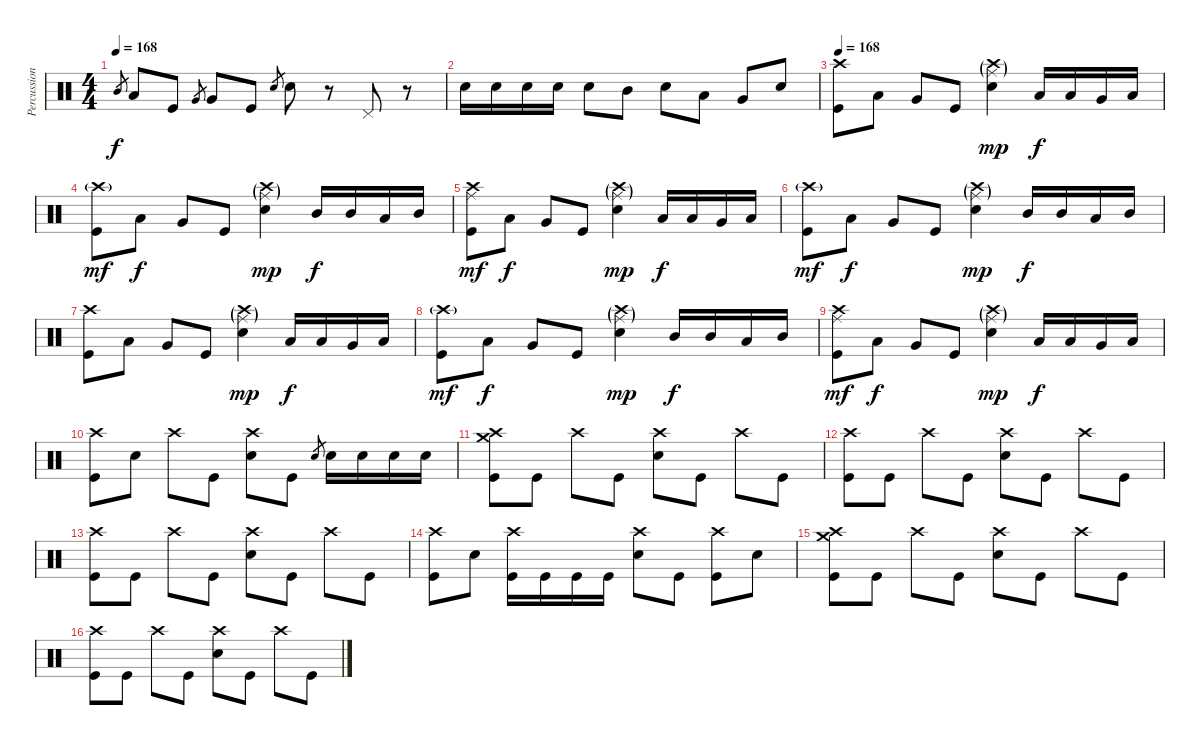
\track ("Percussion" "Percussion") {instrument percussion}
\staff {score}
\articulation defaults
\ts (4 4)
\tempo 168
\clef neutral
\ks c "Mid Tom (hit)".8{gr dy f} "Low Tom (hit)".8 "Kick (hit)".8 "Very Low Tom (hit)".8{gr} "Very Low Tom (hit)".8 "Kick (hit)".8 "Snare (hit) 2".8{gr} "Snare (hit) 2".8
r.8 "Pedal Hi-Hat (hit)".8 r.8 |
"Snare (hit) 2".16 "Snare (hit) 2".16 "Snare (hit) 2".16 "Snare (hit) 2".16 "Snare (hit) 2".8 "Mid Tom (hit)".8 "Snare (hit) 2".8 "Low Tom (hit)".8 "Very Low Tom (hit)".8 "Snare (hit) 2".8 |
\tempo 168
("Crash high (hit)" "Kick (hit)").8 "Low Tom (hit)".8 "Very Low Tom (hit)".8 "Kick (hit)".8 ("Crash high (hit)"{g} "Ride (middle)"{g} "Snare (hit) 2").4{dy mp} "Low Floor Tom (hit)".16{dy f} "Low Floor Tom (hit)".16 "Very Low Tom (hit)".16 "Low Floor Tom (hit)".16 |
("Crash high (hit)"{g} "Kick (hit)").8{dy mf} "Low Tom (hit)".8{dy f} "Very Low Tom (hit)".8 "Kick (hit)".8 ("Crash high (hit)"{g} "Ride (middle)"{g} "Snare (hit) 2").4{dy mp} "Mid Tom (hit)".16{dy f} "Mid Tom (hit)".16 "Low Tom (hit)".16 "Mid Tom (hit)".16 |
("Crash high (hit)" "Ride (middle)" "Kick (hit)").8{dy mf} "Low Tom (hit)".8{dy f} "Very Low Tom (hit)".8 "Kick (hit)".8 ("Crash high (hit)"{g} "Ride (middle)"{g} "Snare (hit) 2").4{dy mp} "Low Floor Tom (hit)".16{dy f} "Low Floor Tom (hit)".16 "Very Low Tom (hit)".16 "Low Floor Tom (hit)".16 |
("Crash high (hit)"{g} "Kick (hit)").8{dy mf} "Low Tom (hit)".8{dy f} "Very Low Tom (hit)".8 "Kick (hit)".8 ("Crash high (hit)"{g} "Ride (middle)"{g} "Snare (hit) 2").4{dy mp} "Mid Tom (hit)".16{dy f} "Mid Tom (hit)".16 "Low Tom (hit)".16 "Mid Tom (hit)".16 |
("Crash high (hit)" "Kick (hit)").8 "Low Tom (hit)".8 "Very Low Tom (hit)".8 "Kick (hit)".8 ("Crash high (hit)"{g} "Ride (middle)"{g} "Snare (hit) 2").4{dy mp} "Low Floor Tom (hit)".16{dy f} "Low Floor Tom (hit)".16 "Very Low Tom (hit)".16 "Low Floor Tom (hit)".16 |
("Crash high (hit)"{g} "Kick (hit)").8{dy mf} "Low Tom (hit)".8{dy f} "Very Low Tom (hit)".8 "Kick (hit)".8 ("Crash high (hit)"{g} "Ride (middle)"{g} "Snare (hit) 2").4{dy mp} "Mid Tom (hit)".16{dy f} "Mid Tom (hit)".16 "Low Tom (hit)".16 "Mid Tom (hit)".16 |
("Crash high (hit)" "Ride (middle)" "Kick (hit)").8{dy mf} "Low Tom (hit)".8{dy f} "Very Low Tom (hit)".8 "Kick (hit)".8 ("Crash high (hit)"{g} "Ride (middle)"{g} "Snare (hit) 2").4{dy mp} "Low Floor Tom (hit)".16{dy f} "Low Floor Tom (hit)".16 "Very Low Tom (hit)".16 "Low Floor Tom (hit)".16 |
("Crash high (hit)" "Kick (hit)").8 "Snare (hit) 2".8 "Crash high (hit)".8 "Kick (hit)".8 ("Crash high (hit)" "Snare (hit) 2").8 "Kick (hit)".8 "Snare (hit) 2".8{gr} "Snare (hit) 2".16 "Snare (hit) 2".16 "Snare (hit) 2".16 "Snare (hit) 2".16 |
("Crash high (hit)" "Crash medium (hit)" "Kick (hit)").8{volume 16} "Kick (hit)".8 "Crash high (hit)".8 "Kick (hit)".8 ("Crash high (hit)" "Snare (hit) 2").8 "Kick (hit)".8 "Crash high (hit)".8 "Kick (hit)".8 |
("Crash high (hit)" "Kick (hit)").8 "Kick (hit)".8 "Crash high (hit)".8 "Kick (hit)".8 ("Crash high (hit)" "Snare (hit) 2").8 "Kick (hit)".8 "Crash high (hit)".8 "Kick (hit)".8 |
("Crash high (hit)" "Kick (hit)").8 "Kick (hit)".8 "Crash high (hit)".8 "Kick (hit)".8 ("Crash high (hit)" "Snare (hit) 2").8 "Kick (hit)".8 "Crash high (hit)".8 "Kick (hit)".8 |
("Crash high (hit)" "Kick (hit)").8 "Snare (hit) 2".8 ("Crash high (hit)" "Kick (hit)").16 "Kick (hit)".16 "Kick (hit)".16 "Kick (hit)".16 ("Crash high (hit)" "Snare (hit) 2").8 "Kick (hit)".8 ("Crash high (hit)" "Kick (hit)").8 "Snare (hit) 2".8 |
("Crash high (hit)" "Crash medium (hit)" "Kick (hit)").8 "Kick (hit)".8 "Crash high (hit)".8 "Kick (hit)".8 ("Crash high (hit)" "Snare (hit) 2").8 "Kick (hit)".8 "Crash high (hit)".8 "Kick (hit)".8 |
("Crash high (hit)" "Kick (hit)").8 "Kick (hit)".8 "Crash high (hit)".8 "Kick (hit)".8 ("Crash high (hit)" "Snare (hit) 2").8 "Kick (hit)".8 "Crash high (hit)".8 "Kick (hit)".8
